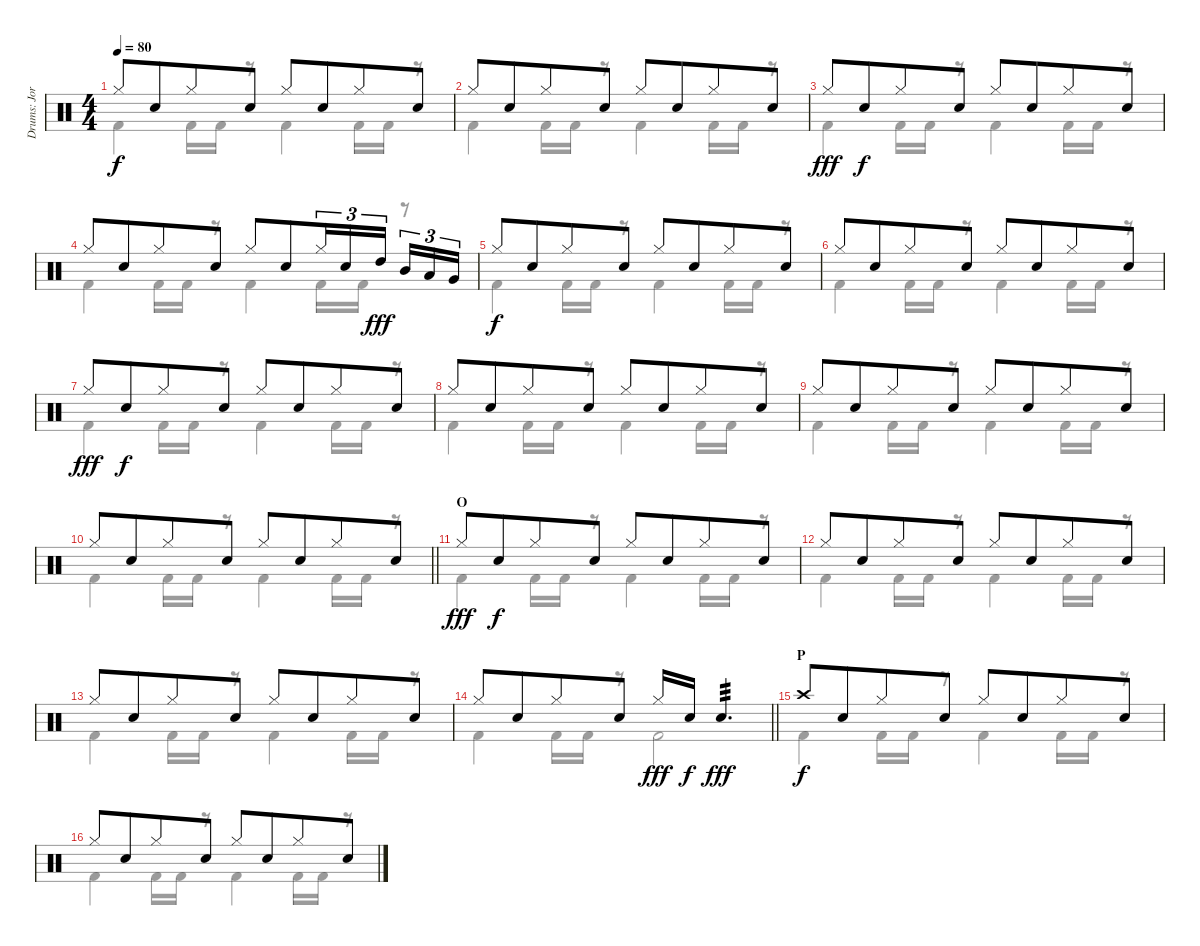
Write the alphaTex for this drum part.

\track ("Drums: Jorg" "Drums: Jor") {instrument percussion}
\staff {score}
\articulation defaults
\voice
\ts (4 4)
\tempo 80
\clef neutral
\ks c "Hi-Hat (closed)".8{dy f} "Snare (hit) 2".8{beam merge} "Hi-Hat (closed)".8 "Snare (hit) 2".8 "Hi-Hat (closed)".8 "Snare (hit) 2".8{beam merge} "Hi-Hat (closed)".8 "Snare (hit) 2".8
|
"Hi-Hat (closed)".8 "Snare (hit) 2".8{beam merge} "Hi-Hat (closed)".8 "Snare (hit) 2".8 "Hi-Hat (closed)".8 "Snare (hit) 2".8{beam merge} "Hi-Hat (closed)".8 "Snare (hit) 2".8 |
"Hi-Hat (closed)".8{dy fff} "Snare (hit) 2".8{dy f beam merge} "Hi-Hat (closed)".8 "Snare (hit) 2".8 "Hi-Hat (closed)".8 "Snare (hit) 2".8{beam merge} "Hi-Hat (closed)".8 "Snare (hit) 2".8 |
"Hi-Hat (closed)".8 "Snare (hit) 2".8{beam merge} "Hi-Hat (closed)".8 "Snare (hit) 2".8 "Hi-Hat (closed)".8 "Snare (hit) 2".8{beam merge} "Hi-Hat (closed)".16{tu (3 2)} "Snare (hit) 2".16{tu (3 2)} "High Tom (hit)".16{tu (3 2) dy fff beam splitsecondary} "Mid Tom (hit)".16{tu (3 2)} "Low Tom (hit)".16{tu (3 2)} "Very Low Tom (hit)".16{tu (3 2)} |
"Hi-Hat (closed)".8{dy f} "Snare (hit) 2".8{beam merge} "Hi-Hat (closed)".8 "Snare (hit) 2".8 "Hi-Hat (closed)".8 "Snare (hit) 2".8{beam merge} "Hi-Hat (closed)".8 "Snare (hit) 2".8 |
"Hi-Hat (closed)".8 "Snare (hit) 2".8{beam merge} "Hi-Hat (closed)".8 "Snare (hit) 2".8 "Hi-Hat (closed)".8 "Snare (hit) 2".8{beam merge} "Hi-Hat (closed)".8 "Snare (hit) 2".8 |
"Hi-Hat (closed)".8{dy fff} "Snare (hit) 2".8{dy f beam merge} "Hi-Hat (closed)".8 "Snare (hit) 2".8 "Hi-Hat (closed)".8 "Snare (hit) 2".8{beam merge} "Hi-Hat (closed)".8 "Snare (hit) 2".8 |
"Hi-Hat (closed)".8 "Snare (hit) 2".8{beam merge} "Hi-Hat (closed)".8 "Snare (hit) 2".8 "Hi-Hat (closed)".8 "Snare (hit) 2".8{beam merge} "Hi-Hat (closed)".8 "Snare (hit) 2".8 |
"Hi-Hat (closed)".8 "Snare (hit) 2".8{beam merge} "Hi-Hat (closed)".8 "Snare (hit) 2".8 "Hi-Hat (closed)".8 "Snare (hit) 2".8{beam merge} "Hi-Hat (closed)".8 "Snare (hit) 2".8 |
\barLineRight lightlight "Hi-Hat (closed)".8 "Snare (hit) 2".8{beam merge} "Hi-Hat (closed)".8 "Snare (hit) 2".8 "Hi-Hat (closed)".8 "Snare (hit) 2".8{beam merge} "Hi-Hat (closed)".8 "Snare (hit) 2".8
|
\section ("" "O")
"Hi-Hat (closed)".8{dy fff} "Snare (hit) 2".8{dy f beam merge} "Hi-Hat (closed)".8 "Snare (hit) 2".8 "Hi-Hat (closed)".8 "Snare (hit) 2".8{beam merge} "Hi-Hat (closed)".8 "Snare (hit) 2".8 |
"Hi-Hat (closed)".8 "Snare (hit) 2".8{beam merge} "Hi-Hat (closed)".8 "Snare (hit) 2".8 "Hi-Hat (closed)".8 "Snare (hit) 2".8{beam merge} "Hi-Hat (closed)".8 "Snare (hit) 2".8 |
"Hi-Hat (closed)".8 "Snare (hit) 2".8{beam merge} "Hi-Hat (closed)".8 "Snare (hit) 2".8 "Hi-Hat (closed)".8 "Snare (hit) 2".8{beam merge} "Hi-Hat (closed)".8 "Snare (hit) 2".8 |
\barLineRight lightlight "Hi-Hat (closed)".8 "Snare (hit) 2".8{beam merge} "Hi-Hat (closed)".8 "Snare (hit) 2".8 "Hi-Hat (closed)".16{dy fff beam merge} "Snare (hit) 2".16{dy f} "Snare (hit) 2".4{d tp 3 dy fff}
|
\section ("" "P")
"Crash high (hit)".8{dy f} "Snare (hit) 2".8{beam merge} "Hi-Hat (closed)".8 "Snare (hit) 2".8 "Hi-Hat (closed)".8 "Snare (hit) 2".8{beam merge} "Hi-Hat (closed)".8 "Snare (hit) 2".8 |
"Hi-Hat (closed)".8 "Snare (hit) 2".8{beam merge} "Hi-Hat (closed)".8 "Snare (hit) 2".8 "Hi-Hat (closed)".8 "Snare (hit) 2".8{beam merge} "Hi-Hat (closed)".8 "Snare (hit) 2".8
\voice
\clef neutral
\ottava regular
\simile none
\ks c "Kick (hit) 2".4{dy f} "Kick (hit) 2".16 "Kick (hit) 2".16
r.8 "Kick (hit) 2".4 "Kick (hit) 2".16 "Kick (hit) 2".16 r.8 |
"Kick (hit) 2".4 "Kick (hit) 2".16 "Kick (hit) 2".16 r.8 "Kick (hit) 2".4 "Kick (hit) 2".16 "Kick (hit) 2".16 r.8 |
"Kick (hit) 2".4 "Kick (hit) 2".16 "Kick (hit) 2".16 r.8 "Kick (hit) 2".4 "Kick (hit) 2".16 "Kick (hit) 2".16 r.8 |
"Kick (hit) 2".4 "Kick (hit) 2".16 "Kick (hit) 2".16 r.8 "Kick (hit) 2".4 "Kick (hit) 2".16 "Kick (hit) 2".16 r.8 |
"Kick (hit) 2".4 "Kick (hit) 2".16 "Kick (hit) 2".16 r.8 "Kick (hit) 2".4 "Kick (hit) 2".16 "Kick (hit) 2".16 r.8 |
"Kick (hit) 2".4 "Kick (hit) 2".16 "Kick (hit) 2".16 r.8 "Kick (hit) 2".4 "Kick (hit) 2".16 "Kick (hit) 2".16 r.8 |
"Kick (hit) 2".4 "Kick (hit) 2".16 "Kick (hit) 2".16 r.8 "Kick (hit) 2".4 "Kick (hit) 2".16 "Kick (hit) 2".16 r.8 |
"Kick (hit) 2".4 "Kick (hit) 2".16 "Kick (hit) 2".16 r.8 "Kick (hit) 2".4 "Kick (hit) 2".16 "Kick (hit) 2".16 r.8 |
"Kick (hit) 2".4 "Kick (hit) 2".16 "Kick (hit) 2".16 r.8 "Kick (hit) 2".4 "Kick (hit) 2".16 "Kick (hit) 2".16 r.8 |
\barLineRight lightlight "Kick (hit) 2".4 "Kick (hit) 2".16 "Kick (hit) 2".16
r.8 "Kick (hit) 2".4 "Kick (hit) 2".16 "Kick (hit) 2".16 r.8 |
"Kick (hit) 2".4 "Kick (hit) 2".16 "Kick (hit) 2".16 r.8 "Kick (hit) 2".4 "Kick (hit) 2".16 "Kick (hit) 2".16 r.8 |
"Kick (hit) 2".4 "Kick (hit) 2".16 "Kick (hit) 2".16 r.8 "Kick (hit) 2".4 "Kick (hit) 2".16 "Kick (hit) 2".16 r.8 |
"Kick (hit) 2".4 "Kick (hit) 2".16 "Kick (hit) 2".16 r.8 "Kick (hit) 2".4 "Kick (hit) 2".16 "Kick (hit) 2".16 r.8 |
\barLineRight lightlight "Kick (hit) 2".4 "Kick (hit) 2".16 "Kick (hit) 2".16
r.8 "Kick (hit) 2".2 |
"Kick (hit) 2".4 "Kick (hit) 2".16 "Kick (hit) 2".16 r.8 "Kick (hit) 2".4 "Kick (hit) 2".16 "Kick (hit) 2".16 r.8 |
"Kick (hit) 2".4 "Kick (hit) 2".16 "Kick (hit) 2".16 r.8 "Kick (hit) 2".4 "Kick (hit) 2".16 "Kick (hit) 2".16 r.8
